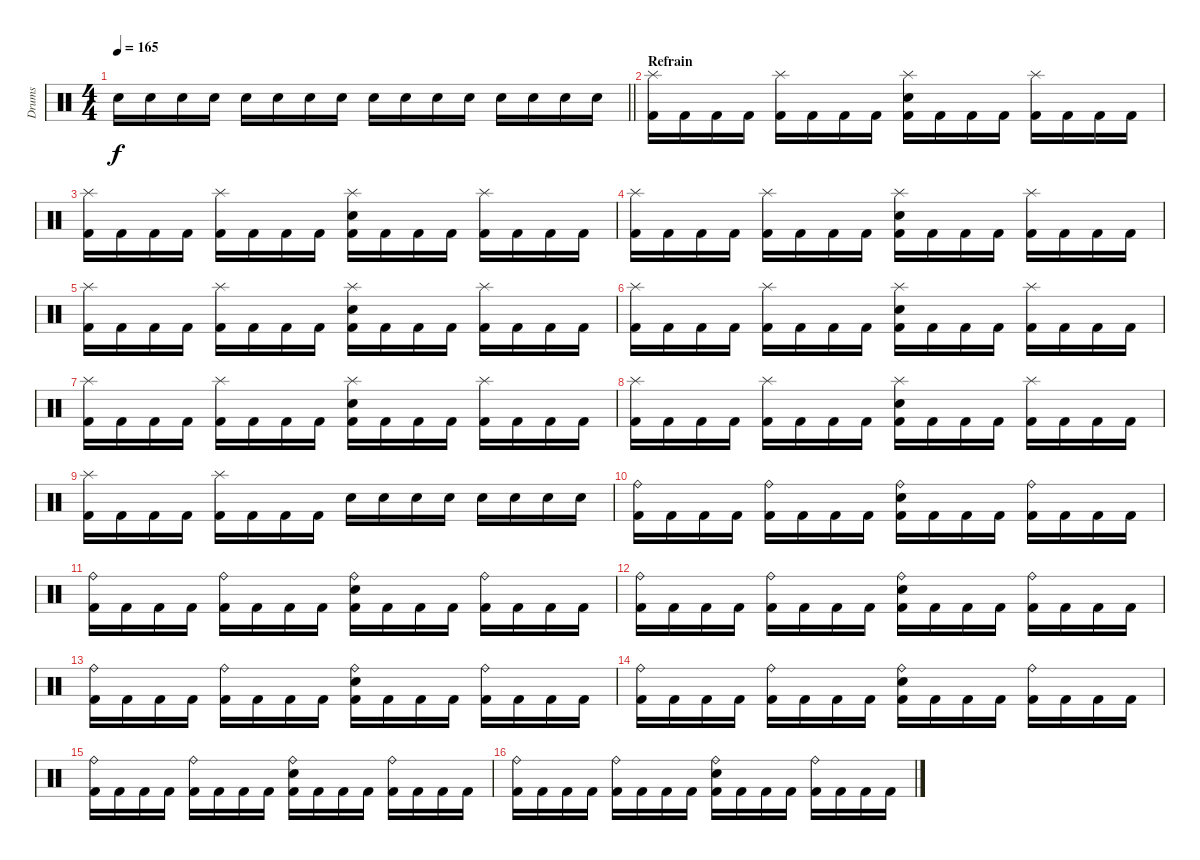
\track ("Drums" "Drums") {instrument percussion}
\staff {score}
\articulation defaults
\ts (4 4)
\tempo 165
\clef neutral
\barLineRight lightlight
\ks c "Snare (hit) 2".16{dy f} "Snare (hit) 2".16 "Snare (hit) 2".16 "Snare (hit) 2".16 "Snare (hit) 2".16 "Snare (hit) 2".16 "Snare (hit) 2".16 "Snare (hit) 2".16 "Snare (hit) 2".16 "Snare (hit) 2".16 "Snare (hit) 2".16 "Snare (hit) 2".16 "Snare (hit) 2".16 "Snare (hit) 2".16 "Snare (hit) 2".16 "Snare (hit) 2".16
|
\section ("" "Refrain")
("Kick (hit) 2" "Splash (hit)").16 "Kick (hit) 2".16 "Kick (hit) 2".16 "Kick (hit) 2".16 ("Kick (hit) 2" "Splash (hit)").16 "Kick (hit) 2".16 "Kick (hit) 2".16 "Kick (hit) 2".16 ("Kick (hit) 2" "Snare (hit) 2" "Splash (hit)").16 "Kick (hit) 2".16 "Kick (hit) 2".16 "Kick (hit) 2".16 ("Kick (hit) 2" "Splash (hit)").16 "Kick (hit) 2".16 "Kick (hit) 2".16 "Kick (hit) 2".16 |
("Kick (hit) 2" "Splash (hit)").16 "Kick (hit) 2".16 "Kick (hit) 2".16 "Kick (hit) 2".16 ("Kick (hit) 2" "Splash (hit)").16 "Kick (hit) 2".16 "Kick (hit) 2".16 "Kick (hit) 2".16 ("Kick (hit) 2" "Snare (hit) 2" "Splash (hit)").16 "Kick (hit) 2".16 "Kick (hit) 2".16 "Kick (hit) 2".16 ("Kick (hit) 2" "Splash (hit)").16 "Kick (hit) 2".16 "Kick (hit) 2".16 "Kick (hit) 2".16 |
("Kick (hit) 2" "Splash (hit)").16 "Kick (hit) 2".16 "Kick (hit) 2".16 "Kick (hit) 2".16 ("Kick (hit) 2" "Splash (hit)").16 "Kick (hit) 2".16 "Kick (hit) 2".16 "Kick (hit) 2".16 ("Kick (hit) 2" "Snare (hit) 2" "Splash (hit)").16 "Kick (hit) 2".16 "Kick (hit) 2".16 "Kick (hit) 2".16 ("Kick (hit) 2" "Splash (hit)").16 "Kick (hit) 2".16 "Kick (hit) 2".16 "Kick (hit) 2".16 |
("Kick (hit) 2" "Splash (hit)").16 "Kick (hit) 2".16 "Kick (hit) 2".16 "Kick (hit) 2".16 ("Kick (hit) 2" "Splash (hit)").16 "Kick (hit) 2".16 "Kick (hit) 2".16 "Kick (hit) 2".16 ("Kick (hit) 2" "Snare (hit) 2" "Splash (hit)").16 "Kick (hit) 2".16 "Kick (hit) 2".16 "Kick (hit) 2".16 ("Kick (hit) 2" "Splash (hit)").16 "Kick (hit) 2".16 "Kick (hit) 2".16 "Kick (hit) 2".16 |
("Kick (hit) 2" "Splash (hit)").16 "Kick (hit) 2".16 "Kick (hit) 2".16 "Kick (hit) 2".16 ("Kick (hit) 2" "Splash (hit)").16 "Kick (hit) 2".16 "Kick (hit) 2".16 "Kick (hit) 2".16 ("Kick (hit) 2" "Snare (hit) 2" "Splash (hit)").16 "Kick (hit) 2".16 "Kick (hit) 2".16 "Kick (hit) 2".16 ("Kick (hit) 2" "Splash (hit)").16 "Kick (hit) 2".16 "Kick (hit) 2".16 "Kick (hit) 2".16 |
("Kick (hit) 2" "Splash (hit)").16 "Kick (hit) 2".16 "Kick (hit) 2".16 "Kick (hit) 2".16 ("Kick (hit) 2" "Splash (hit)").16 "Kick (hit) 2".16 "Kick (hit) 2".16 "Kick (hit) 2".16 ("Kick (hit) 2" "Snare (hit) 2" "Splash (hit)").16 "Kick (hit) 2".16 "Kick (hit) 2".16 "Kick (hit) 2".16 ("Kick (hit) 2" "Splash (hit)").16 "Kick (hit) 2".16 "Kick (hit) 2".16 "Kick (hit) 2".16 |
("Kick (hit) 2" "Splash (hit)").16 "Kick (hit) 2".16 "Kick (hit) 2".16 "Kick (hit) 2".16 ("Kick (hit) 2" "Splash (hit)").16 "Kick (hit) 2".16 "Kick (hit) 2".16 "Kick (hit) 2".16 ("Kick (hit) 2" "Snare (hit) 2" "Splash (hit)").16 "Kick (hit) 2".16 "Kick (hit) 2".16 "Kick (hit) 2".16 ("Kick (hit) 2" "Splash (hit)").16 "Kick (hit) 2".16 "Kick (hit) 2".16 "Kick (hit) 2".16 |
("Kick (hit) 2" "Splash (hit)").16 "Kick (hit) 2".16 "Kick (hit) 2".16 "Kick (hit) 2".16 ("Kick (hit) 2" "Splash (hit)").16 "Kick (hit) 2".16 "Kick (hit) 2".16 "Kick (hit) 2".16 "Snare (hit) 2".16 "Snare (hit) 2".16 "Snare (hit) 2".16 "Snare (hit) 2".16 "Snare (hit) 2".16 "Snare (hit) 2".16 "Snare (hit) 2".16 "Snare (hit) 2".16 |
("Kick (hit) 2" "Ride (bell)").16 "Kick (hit) 2".16 "Kick (hit) 2".16 "Kick (hit) 2".16 ("Kick (hit) 2" "Ride (bell)").16 "Kick (hit) 2".16 "Kick (hit) 2".16 "Kick (hit) 2".16 ("Kick (hit) 2" "Snare (hit) 2" "Ride (bell)").16 "Kick (hit) 2".16 "Kick (hit) 2".16 "Kick (hit) 2".16 ("Kick (hit) 2" "Ride (bell)").16 "Kick (hit) 2".16 "Kick (hit) 2".16 "Kick (hit) 2".16 |
("Kick (hit) 2" "Ride (bell)").16 "Kick (hit) 2".16 "Kick (hit) 2".16 "Kick (hit) 2".16 ("Kick (hit) 2" "Ride (bell)").16 "Kick (hit) 2".16 "Kick (hit) 2".16 "Kick (hit) 2".16 ("Kick (hit) 2" "Snare (hit) 2" "Ride (bell)").16 "Kick (hit) 2".16 "Kick (hit) 2".16 "Kick (hit) 2".16 ("Kick (hit) 2" "Ride (bell)").16 "Kick (hit) 2".16 "Kick (hit) 2".16 "Kick (hit) 2".16 |
("Kick (hit) 2" "Ride (bell)").16 "Kick (hit) 2".16 "Kick (hit) 2".16 "Kick (hit) 2".16 ("Kick (hit) 2" "Ride (bell)").16 "Kick (hit) 2".16 "Kick (hit) 2".16 "Kick (hit) 2".16 ("Kick (hit) 2" "Snare (hit) 2" "Ride (bell)").16 "Kick (hit) 2".16 "Kick (hit) 2".16 "Kick (hit) 2".16 ("Kick (hit) 2" "Ride (bell)").16 "Kick (hit) 2".16 "Kick (hit) 2".16 "Kick (hit) 2".16 |
("Kick (hit) 2" "Ride (bell)").16 "Kick (hit) 2".16 "Kick (hit) 2".16 "Kick (hit) 2".16 ("Kick (hit) 2" "Ride (bell)").16 "Kick (hit) 2".16 "Kick (hit) 2".16 "Kick (hit) 2".16 ("Kick (hit) 2" "Snare (hit) 2" "Ride (bell)").16 "Kick (hit) 2".16 "Kick (hit) 2".16 "Kick (hit) 2".16 ("Kick (hit) 2" "Ride (bell)").16 "Kick (hit) 2".16 "Kick (hit) 2".16 "Kick (hit) 2".16 |
("Kick (hit) 2" "Ride (bell)").16 "Kick (hit) 2".16 "Kick (hit) 2".16 "Kick (hit) 2".16 ("Kick (hit) 2" "Ride (bell)").16 "Kick (hit) 2".16 "Kick (hit) 2".16 "Kick (hit) 2".16 ("Kick (hit) 2" "Snare (hit) 2" "Ride (bell)").16 "Kick (hit) 2".16 "Kick (hit) 2".16 "Kick (hit) 2".16 ("Kick (hit) 2" "Ride (bell)").16 "Kick (hit) 2".16 "Kick (hit) 2".16 "Kick (hit) 2".16 |
("Kick (hit) 2" "Ride (bell)").16 "Kick (hit) 2".16 "Kick (hit) 2".16 "Kick (hit) 2".16 ("Kick (hit) 2" "Ride (bell)").16 "Kick (hit) 2".16 "Kick (hit) 2".16 "Kick (hit) 2".16 ("Kick (hit) 2" "Snare (hit) 2" "Ride (bell)").16 "Kick (hit) 2".16 "Kick (hit) 2".16 "Kick (hit) 2".16 ("Kick (hit) 2" "Ride (bell)").16 "Kick (hit) 2".16 "Kick (hit) 2".16 "Kick (hit) 2".16 |
("Kick (hit) 2" "Ride (bell)").16 "Kick (hit) 2".16 "Kick (hit) 2".16 "Kick (hit) 2".16 ("Kick (hit) 2" "Ride (bell)").16 "Kick (hit) 2".16 "Kick (hit) 2".16 "Kick (hit) 2".16 ("Kick (hit) 2" "Snare (hit) 2" "Ride (bell)").16 "Kick (hit) 2".16 "Kick (hit) 2".16 "Kick (hit) 2".16 ("Kick (hit) 2" "Ride (bell)").16 "Kick (hit) 2".16 "Kick (hit) 2".16 "Kick (hit) 2".16
